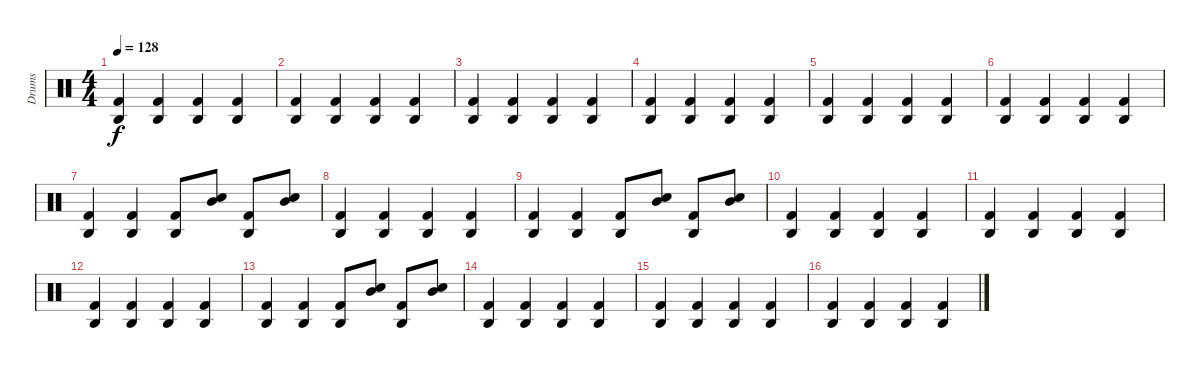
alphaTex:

\track ("Drums" "Drums") {instrument percussion}
\staff {score}
\articulation defaults
\ts (4 4)
\tempo 128
\clef neutral
\ks c
("Agogo high (hit)" "Kick (hit) 2").4{dy f} ("Agogo high (hit)" "Kick (hit) 2").4 ("Agogo high (hit)" "Kick (hit) 2").4 ("Agogo high (hit)" "Kick (hit) 2").4 |
("Agogo high (hit)" "Kick (hit) 2").4 ("Agogo high (hit)" "Kick (hit) 2").4 ("Agogo high (hit)" "Kick (hit) 2").4 ("Agogo high (hit)" "Kick (hit) 2").4 |
("Agogo high (hit)" "Kick (hit) 2").4 ("Agogo high (hit)" "Kick (hit) 2").4 ("Agogo high (hit)" "Kick (hit) 2").4 ("Agogo high (hit)" "Kick (hit) 2").4 |
("Agogo high (hit)" "Kick (hit) 2").4 ("Agogo high (hit)" "Kick (hit) 2").4 ("Agogo high (hit)" "Kick (hit) 2").4 ("Agogo high (hit)" "Kick (hit) 2").4 |
("Agogo high (hit)" "Kick (hit) 2").4 ("Agogo high (hit)" "Kick (hit) 2").4 ("Agogo high (hit)" "Kick (hit) 2").4 ("Agogo high (hit)" "Kick (hit) 2").4 |
("Agogo high (hit)" "Kick (hit) 2").4 ("Agogo high (hit)" "Kick (hit) 2").4 ("Agogo high (hit)" "Kick (hit) 2").4 ("Agogo high (hit)" "Kick (hit) 2").4 |
("Agogo high (hit)" "Kick (hit) 2").4 ("Agogo high (hit)" "Kick (hit) 2").4 ("Agogo high (hit)" "Kick (hit) 2").8 ("Mid Tom (hit)" "Snare (hit) 2").8 ("Agogo high (hit)" "Kick (hit) 2").8 ("Mid Tom (hit)" "Snare (hit) 2").8 |
("Agogo high (hit)" "Kick (hit) 2").4 ("Agogo high (hit)" "Kick (hit) 2").4 ("Agogo high (hit)" "Kick (hit) 2").4 ("Agogo high (hit)" "Kick (hit) 2").4 |
("Agogo high (hit)" "Kick (hit) 2").4 ("Agogo high (hit)" "Kick (hit) 2").4 ("Agogo high (hit)" "Kick (hit) 2").8 ("Mid Tom (hit)" "Snare (hit) 2").8 ("Agogo high (hit)" "Kick (hit) 2").8 ("Mid Tom (hit)" "Snare (hit) 2").8 |
("Agogo high (hit)" "Kick (hit) 2").4 ("Agogo high (hit)" "Kick (hit) 2").4 ("Agogo high (hit)" "Kick (hit) 2").4 ("Agogo high (hit)" "Kick (hit) 2").4 |
("Agogo high (hit)" "Kick (hit) 2").4 ("Agogo high (hit)" "Kick (hit) 2").4 ("Agogo high (hit)" "Kick (hit) 2").4 ("Agogo high (hit)" "Kick (hit) 2").4 |
("Agogo high (hit)" "Kick (hit) 2").4 ("Agogo high (hit)" "Kick (hit) 2").4 ("Agogo high (hit)" "Kick (hit) 2").4 ("Agogo high (hit)" "Kick (hit) 2").4 |
("Agogo high (hit)" "Kick (hit) 2").4 ("Agogo high (hit)" "Kick (hit) 2").4 ("Agogo high (hit)" "Kick (hit) 2").8 ("Mid Tom (hit)" "Snare (hit) 2").8 ("Agogo high (hit)" "Kick (hit) 2").8 ("Mid Tom (hit)" "Snare (hit) 2").8 |
("Agogo high (hit)" "Kick (hit) 2").4 ("Agogo high (hit)" "Kick (hit) 2").4 ("Agogo high (hit)" "Kick (hit) 2").4 ("Agogo high (hit)" "Kick (hit) 2").4 |
("Agogo high (hit)" "Kick (hit) 2").4 ("Agogo high (hit)" "Kick (hit) 2").4 ("Agogo high (hit)" "Kick (hit) 2").4 ("Agogo high (hit)" "Kick (hit) 2").4 |
("Agogo high (hit)" "Kick (hit) 2").4 ("Agogo high (hit)" "Kick (hit) 2").4 ("Agogo high (hit)" "Kick (hit) 2").4 ("Agogo high (hit)" "Kick (hit) 2").4
